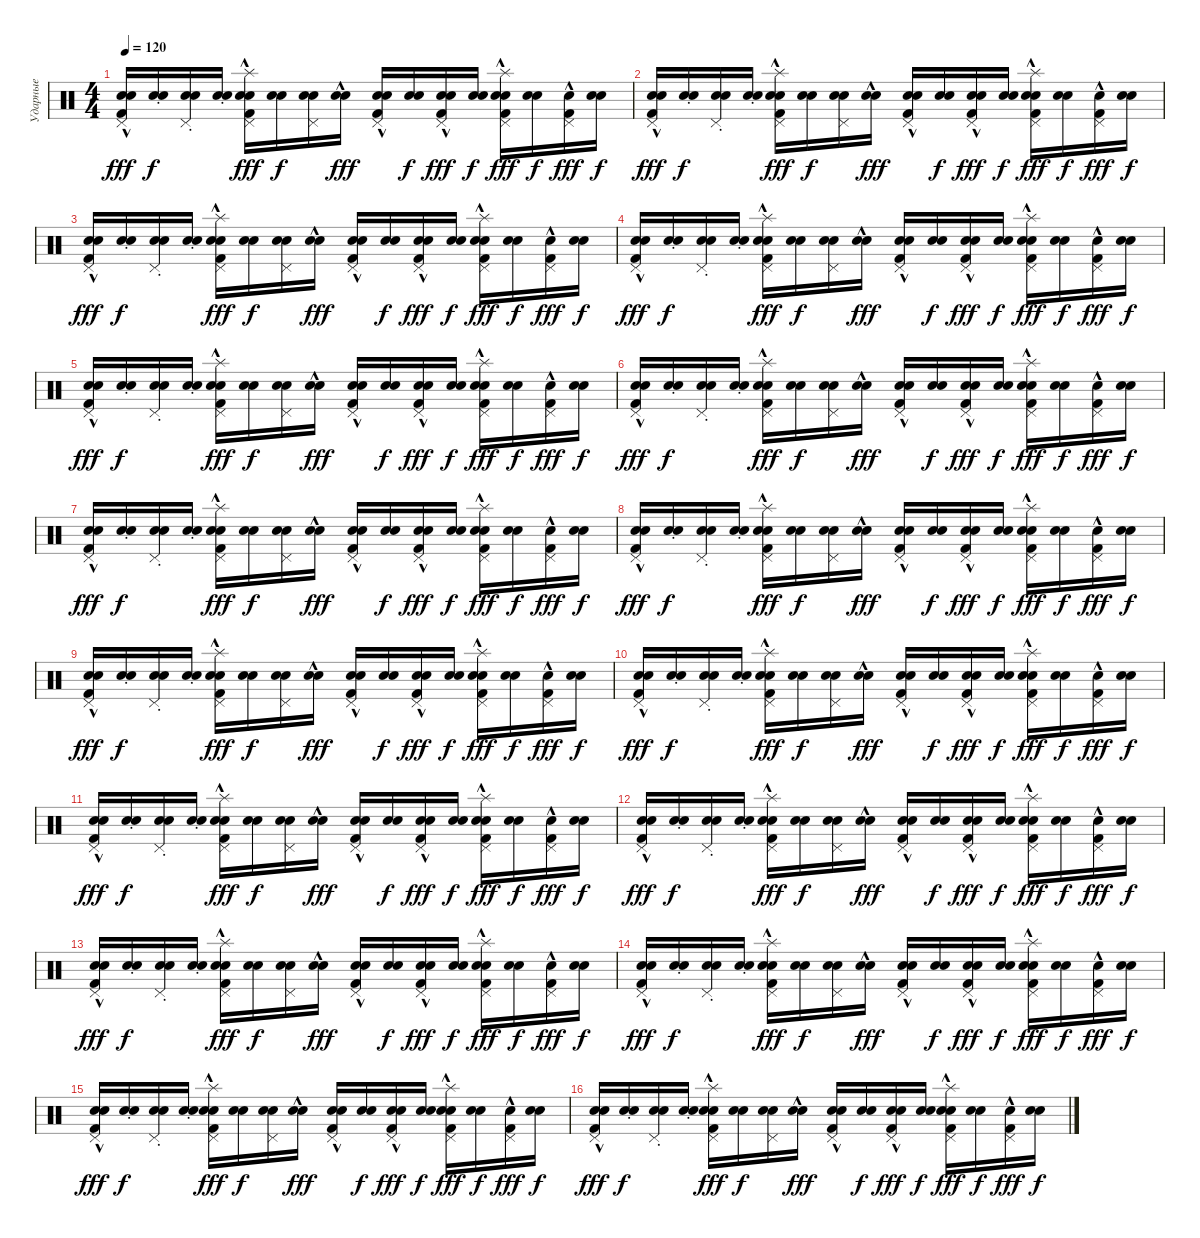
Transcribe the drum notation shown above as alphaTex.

\track ("Ударные" "Ударные") {instrument percussion}
\staff {score}
\articulation defaults
\ts (4 4)
\tempo 120
\clef neutral
\ks c
("Electric Snare (hit)" "Pedal Hi-Hat (hit)"{hac} "Snare (hit) 2"{hac} "Kick (hit) 2"{hac}).16{dy fff} ("Electric Snare (hit)"{st} "Snare (hit)").16{dy f} ("Electric Snare (hit)"{st} "Pedal Hi-Hat (hit)" "Snare (hit)").16 ("Electric Snare (hit)"{st} "Snare (hit)").16 ("Electric Snare (hit)" "Splash (hit)" "Pedal Hi-Hat (hit)" "Snare (hit) 2"{hac} "Kick (hit) 2"{hac}).16{dy fff} ("Electric Snare (hit)" "Snare (hit)").16{dy f} ("Electric Snare (hit)" "Pedal Hi-Hat (hit)" "Snare (hit)").16 ("Electric Snare (hit)" "Snare (hit)"{hac}).16{dy fff} ("Electric Snare (hit)" "Pedal Hi-Hat (hit)" "Snare (hit) 2"{hac} "Kick (hit) 2"{hac}).16 ("Electric Snare (hit)" "Snare (hit)").16{dy f} ("Electric Snare (hit)" "Electric Snare (hit)" "Pedal Hi-Hat (hit)" "Kick (hit) 2"{hac}).16{dy fff} ("Electric Snare (hit)" "Snare (hit)").16{dy f} ("Electric Snare (hit)" "Splash (hit)"{hac} "Pedal Hi-Hat (hit)" "Snare (hit) 2"{hac} "Kick (hit) 2"{hac}).16{dy fff} ("Electric Snare (hit)" "Snare (hit)").16{dy f} ("Electric Snare (hit)" "Pedal Hi-Hat (hit)"{hac} "Kick (hit) 2"{hac}).16{dy fff} ("Electric Snare (hit)" "Snare (hit)").16{dy f} |
("Electric Snare (hit)" "Pedal Hi-Hat (hit)"{hac} "Snare (hit) 2"{hac} "Kick (hit) 2"{hac}).16{dy fff} ("Electric Snare (hit)"{st} "Snare (hit)").16{dy f} ("Electric Snare (hit)"{st} "Pedal Hi-Hat (hit)" "Snare (hit)").16 ("Electric Snare (hit)"{st} "Snare (hit)").16 ("Electric Snare (hit)" "Splash (hit)" "Pedal Hi-Hat (hit)" "Snare (hit) 2"{hac} "Kick (hit) 2"{hac}).16{dy fff} ("Electric Snare (hit)" "Snare (hit)").16{dy f} ("Electric Snare (hit)" "Pedal Hi-Hat (hit)" "Snare (hit)").16 ("Electric Snare (hit)" "Snare (hit)"{hac}).16{dy fff} ("Electric Snare (hit)" "Pedal Hi-Hat (hit)"{hac} "Snare (hit) 2"{hac} "Kick (hit) 2"{hac}).16 ("Electric Snare (hit)" "Snare (hit)").16{dy f} ("Electric Snare (hit)" "Electric Snare (hit)"{hac} "Pedal Hi-Hat (hit)"{hac} "Kick (hit) 2"{hac}).16{dy fff} ("Electric Snare (hit)" "Snare (hit)").16{dy f} ("Electric Snare (hit)" "Splash (hit)" "Pedal Hi-Hat (hit)"{hac} "Snare (hit) 2"{hac} "Kick (hit) 2"{hac}).16{dy fff} ("Electric Snare (hit)" "Snare (hit)").16{dy f} ("Electric Snare (hit)" "Pedal Hi-Hat (hit)"{hac} "Kick (hit) 2"{hac}).16{dy fff} ("Electric Snare (hit)" "Snare (hit)").16{dy f} |
("Electric Snare (hit)" "Pedal Hi-Hat (hit)"{hac} "Snare (hit) 2"{hac} "Kick (hit) 2"{hac}).16{dy fff} ("Electric Snare (hit)"{st} "Snare (hit)").16{dy f} ("Electric Snare (hit)"{st} "Pedal Hi-Hat (hit)" "Snare (hit)").16 ("Electric Snare (hit)"{st} "Snare (hit)").16 ("Electric Snare (hit)" "Splash (hit)" "Pedal Hi-Hat (hit)" "Snare (hit) 2"{hac} "Kick (hit) 2"{hac}).16{dy fff} ("Electric Snare (hit)" "Snare (hit)").16{dy f} ("Electric Snare (hit)" "Pedal Hi-Hat (hit)" "Snare (hit)").16 ("Electric Snare (hit)" "Snare (hit)"{hac}).16{dy fff} ("Electric Snare (hit)" "Pedal Hi-Hat (hit)" "Snare (hit) 2"{hac} "Kick (hit) 2"{hac}).16 ("Electric Snare (hit)" "Snare (hit)").16{dy f} ("Electric Snare (hit)" "Electric Snare (hit)" "Pedal Hi-Hat (hit)" "Kick (hit) 2"{hac}).16{dy fff} ("Electric Snare (hit)" "Snare (hit)").16{dy f} ("Electric Snare (hit)" "Splash (hit)"{hac} "Pedal Hi-Hat (hit)" "Snare (hit) 2"{hac} "Kick (hit) 2"{hac}).16{dy fff} ("Electric Snare (hit)" "Snare (hit)").16{dy f} ("Electric Snare (hit)" "Pedal Hi-Hat (hit)"{hac} "Kick (hit) 2"{hac}).16{dy fff} ("Electric Snare (hit)" "Snare (hit)").16{dy f} |
("Electric Snare (hit)" "Pedal Hi-Hat (hit)"{hac} "Snare (hit) 2"{hac} "Kick (hit) 2"{hac}).16{dy fff} ("Electric Snare (hit)"{st} "Snare (hit)").16{dy f} ("Electric Snare (hit)"{st} "Pedal Hi-Hat (hit)" "Snare (hit)").16 ("Electric Snare (hit)"{st} "Snare (hit)").16 ("Electric Snare (hit)" "Splash (hit)" "Pedal Hi-Hat (hit)" "Snare (hit) 2"{hac} "Kick (hit) 2"{hac}).16{dy fff} ("Electric Snare (hit)" "Snare (hit)").16{dy f} ("Electric Snare (hit)" "Pedal Hi-Hat (hit)" "Snare (hit)").16 ("Electric Snare (hit)" "Snare (hit)"{hac}).16{dy fff} ("Electric Snare (hit)" "Pedal Hi-Hat (hit)"{hac} "Snare (hit) 2"{hac} "Kick (hit) 2"{hac}).16 ("Electric Snare (hit)" "Snare (hit)").16{dy f} ("Electric Snare (hit)" "Electric Snare (hit)"{hac} "Pedal Hi-Hat (hit)"{hac} "Kick (hit) 2"{hac}).16{dy fff} ("Electric Snare (hit)" "Snare (hit)").16{dy f} ("Electric Snare (hit)" "Splash (hit)" "Pedal Hi-Hat (hit)"{hac} "Snare (hit) 2"{hac} "Kick (hit) 2"{hac}).16{dy fff} ("Electric Snare (hit)" "Snare (hit)").16{dy f} ("Electric Snare (hit)" "Pedal Hi-Hat (hit)"{hac} "Kick (hit) 2"{hac}).16{dy fff} ("Electric Snare (hit)" "Snare (hit)").16{dy f} |
("Electric Snare (hit)" "Pedal Hi-Hat (hit)"{hac} "Snare (hit) 2"{hac} "Kick (hit) 2"{hac}).16{dy fff} ("Electric Snare (hit)"{st} "Snare (hit)").16{dy f} ("Electric Snare (hit)"{st} "Pedal Hi-Hat (hit)" "Snare (hit)").16 ("Electric Snare (hit)"{st} "Snare (hit)").16 ("Electric Snare (hit)" "Splash (hit)" "Pedal Hi-Hat (hit)" "Snare (hit) 2"{hac} "Kick (hit) 2"{hac}).16{dy fff} ("Electric Snare (hit)" "Snare (hit)").16{dy f} ("Electric Snare (hit)" "Pedal Hi-Hat (hit)" "Snare (hit)").16 ("Electric Snare (hit)" "Snare (hit)"{hac}).16{dy fff} ("Electric Snare (hit)" "Pedal Hi-Hat (hit)" "Snare (hit) 2"{hac} "Kick (hit) 2"{hac}).16 ("Electric Snare (hit)" "Snare (hit)").16{dy f} ("Electric Snare (hit)" "Electric Snare (hit)" "Pedal Hi-Hat (hit)" "Kick (hit) 2"{hac}).16{dy fff} ("Electric Snare (hit)" "Snare (hit)").16{dy f} ("Electric Snare (hit)" "Splash (hit)"{hac} "Pedal Hi-Hat (hit)" "Snare (hit) 2"{hac} "Kick (hit) 2"{hac}).16{dy fff} ("Electric Snare (hit)" "Snare (hit)").16{dy f} ("Electric Snare (hit)" "Pedal Hi-Hat (hit)"{hac} "Kick (hit) 2"{hac}).16{dy fff} ("Electric Snare (hit)" "Snare (hit)").16{dy f} |
("Electric Snare (hit)" "Pedal Hi-Hat (hit)"{hac} "Snare (hit) 2"{hac} "Kick (hit) 2"{hac}).16{dy fff} ("Electric Snare (hit)"{st} "Snare (hit)").16{dy f} ("Electric Snare (hit)"{st} "Pedal Hi-Hat (hit)" "Snare (hit)").16 ("Electric Snare (hit)"{st} "Snare (hit)").16 ("Electric Snare (hit)" "Splash (hit)" "Pedal Hi-Hat (hit)" "Snare (hit) 2"{hac} "Kick (hit) 2"{hac}).16{dy fff} ("Electric Snare (hit)" "Snare (hit)").16{dy f} ("Electric Snare (hit)" "Pedal Hi-Hat (hit)" "Snare (hit)").16 ("Electric Snare (hit)" "Snare (hit)"{hac}).16{dy fff} ("Electric Snare (hit)" "Pedal Hi-Hat (hit)"{hac} "Snare (hit) 2"{hac} "Kick (hit) 2"{hac}).16 ("Electric Snare (hit)" "Snare (hit)").16{dy f} ("Electric Snare (hit)" "Electric Snare (hit)"{hac} "Pedal Hi-Hat (hit)"{hac} "Kick (hit) 2"{hac}).16{dy fff} ("Electric Snare (hit)" "Snare (hit)").16{dy f} ("Electric Snare (hit)" "Splash (hit)" "Pedal Hi-Hat (hit)"{hac} "Snare (hit) 2"{hac} "Kick (hit) 2"{hac}).16{dy fff} ("Electric Snare (hit)" "Snare (hit)").16{dy f} ("Electric Snare (hit)" "Pedal Hi-Hat (hit)"{hac} "Kick (hit) 2"{hac}).16{dy fff} ("Electric Snare (hit)" "Snare (hit)").16{dy f} |
("Electric Snare (hit)" "Pedal Hi-Hat (hit)"{hac} "Snare (hit) 2"{hac} "Kick (hit) 2"{hac}).16{dy fff} ("Electric Snare (hit)"{st} "Snare (hit)").16{dy f} ("Electric Snare (hit)"{st} "Pedal Hi-Hat (hit)" "Snare (hit)").16 ("Electric Snare (hit)"{st} "Snare (hit)").16 ("Electric Snare (hit)" "Splash (hit)" "Pedal Hi-Hat (hit)" "Snare (hit) 2"{hac} "Kick (hit) 2"{hac}).16{dy fff} ("Electric Snare (hit)" "Snare (hit)").16{dy f} ("Electric Snare (hit)" "Pedal Hi-Hat (hit)" "Snare (hit)").16 ("Electric Snare (hit)" "Snare (hit)"{hac}).16{dy fff} ("Electric Snare (hit)" "Pedal Hi-Hat (hit)" "Snare (hit) 2"{hac} "Kick (hit) 2"{hac}).16 ("Electric Snare (hit)" "Snare (hit)").16{dy f} ("Electric Snare (hit)" "Electric Snare (hit)" "Pedal Hi-Hat (hit)" "Kick (hit) 2"{hac}).16{dy fff} ("Electric Snare (hit)" "Snare (hit)").16{dy f} ("Electric Snare (hit)" "Splash (hit)"{hac} "Pedal Hi-Hat (hit)" "Snare (hit) 2"{hac} "Kick (hit) 2"{hac}).16{dy fff} ("Electric Snare (hit)" "Snare (hit)").16{dy f} ("Electric Snare (hit)" "Pedal Hi-Hat (hit)"{hac} "Kick (hit) 2"{hac}).16{dy fff} ("Electric Snare (hit)" "Snare (hit)").16{dy f} |
("Electric Snare (hit)" "Pedal Hi-Hat (hit)"{hac} "Snare (hit) 2"{hac} "Kick (hit) 2"{hac}).16{dy fff} ("Electric Snare (hit)"{st} "Snare (hit)").16{dy f} ("Electric Snare (hit)"{st} "Pedal Hi-Hat (hit)" "Snare (hit)").16 ("Electric Snare (hit)"{st} "Snare (hit)").16 ("Electric Snare (hit)" "Splash (hit)" "Pedal Hi-Hat (hit)" "Snare (hit) 2"{hac} "Kick (hit) 2"{hac}).16{dy fff} ("Electric Snare (hit)" "Snare (hit)").16{dy f} ("Electric Snare (hit)" "Pedal Hi-Hat (hit)" "Snare (hit)").16 ("Electric Snare (hit)" "Snare (hit)"{hac}).16{dy fff} ("Electric Snare (hit)" "Pedal Hi-Hat (hit)"{hac} "Snare (hit) 2"{hac} "Kick (hit) 2"{hac}).16 ("Electric Snare (hit)" "Snare (hit)").16{dy f} ("Electric Snare (hit)" "Electric Snare (hit)"{hac} "Pedal Hi-Hat (hit)"{hac} "Kick (hit) 2"{hac}).16{dy fff} ("Electric Snare (hit)" "Snare (hit)").16{dy f} ("Electric Snare (hit)" "Splash (hit)" "Pedal Hi-Hat (hit)"{hac} "Snare (hit) 2"{hac} "Kick (hit) 2"{hac}).16{dy fff} ("Electric Snare (hit)" "Snare (hit)").16{dy f} ("Electric Snare (hit)" "Pedal Hi-Hat (hit)"{hac} "Kick (hit) 2"{hac}).16{dy fff} ("Electric Snare (hit)" "Snare (hit)").16{dy f} |
("Electric Snare (hit)" "Pedal Hi-Hat (hit)"{hac} "Snare (hit) 2"{hac} "Kick (hit) 2"{hac}).16{dy fff} ("Electric Snare (hit)"{st} "Snare (hit)").16{dy f} ("Electric Snare (hit)"{st} "Pedal Hi-Hat (hit)" "Snare (hit)").16 ("Electric Snare (hit)"{st} "Snare (hit)").16 ("Electric Snare (hit)" "Splash (hit)" "Pedal Hi-Hat (hit)" "Snare (hit) 2"{hac} "Kick (hit) 2"{hac}).16{dy fff} ("Electric Snare (hit)" "Snare (hit)").16{dy f} ("Electric Snare (hit)" "Pedal Hi-Hat (hit)" "Snare (hit)").16 ("Electric Snare (hit)" "Snare (hit)"{hac}).16{dy fff} ("Electric Snare (hit)" "Pedal Hi-Hat (hit)" "Snare (hit) 2"{hac} "Kick (hit) 2"{hac}).16 ("Electric Snare (hit)" "Snare (hit)").16{dy f} ("Electric Snare (hit)" "Electric Snare (hit)" "Pedal Hi-Hat (hit)" "Kick (hit) 2"{hac}).16{dy fff} ("Electric Snare (hit)" "Snare (hit)").16{dy f} ("Electric Snare (hit)" "Splash (hit)"{hac} "Pedal Hi-Hat (hit)" "Snare (hit) 2"{hac} "Kick (hit) 2"{hac}).16{dy fff} ("Electric Snare (hit)" "Snare (hit)").16{dy f} ("Electric Snare (hit)" "Pedal Hi-Hat (hit)"{hac} "Kick (hit) 2"{hac}).16{dy fff} ("Electric Snare (hit)" "Snare (hit)").16{dy f} |
("Electric Snare (hit)" "Pedal Hi-Hat (hit)"{hac} "Snare (hit) 2"{hac} "Kick (hit) 2"{hac}).16{dy fff} ("Electric Snare (hit)"{st} "Snare (hit)").16{dy f} ("Electric Snare (hit)"{st} "Pedal Hi-Hat (hit)" "Snare (hit)").16 ("Electric Snare (hit)"{st} "Snare (hit)").16 ("Electric Snare (hit)" "Splash (hit)" "Pedal Hi-Hat (hit)" "Snare (hit) 2"{hac} "Kick (hit) 2"{hac}).16{dy fff} ("Electric Snare (hit)" "Snare (hit)").16{dy f} ("Electric Snare (hit)" "Pedal Hi-Hat (hit)" "Snare (hit)").16 ("Electric Snare (hit)" "Snare (hit)"{hac}).16{dy fff} ("Electric Snare (hit)" "Pedal Hi-Hat (hit)"{hac} "Snare (hit) 2"{hac} "Kick (hit) 2"{hac}).16 ("Electric Snare (hit)" "Snare (hit)").16{dy f} ("Electric Snare (hit)" "Electric Snare (hit)"{hac} "Pedal Hi-Hat (hit)"{hac} "Kick (hit) 2"{hac}).16{dy fff} ("Electric Snare (hit)" "Snare (hit)").16{dy f} ("Electric Snare (hit)" "Splash (hit)" "Pedal Hi-Hat (hit)"{hac} "Snare (hit) 2"{hac} "Kick (hit) 2"{hac}).16{dy fff} ("Electric Snare (hit)" "Snare (hit)").16{dy f} ("Electric Snare (hit)" "Pedal Hi-Hat (hit)"{hac} "Kick (hit) 2"{hac}).16{dy fff} ("Electric Snare (hit)" "Snare (hit)").16{dy f} |
("Electric Snare (hit)" "Pedal Hi-Hat (hit)"{hac} "Snare (hit) 2"{hac} "Kick (hit) 2"{hac}).16{dy fff} ("Electric Snare (hit)"{st} "Snare (hit)").16{dy f} ("Electric Snare (hit)"{st} "Pedal Hi-Hat (hit)" "Snare (hit)").16 ("Electric Snare (hit)"{st} "Snare (hit)").16 ("Electric Snare (hit)" "Splash (hit)" "Pedal Hi-Hat (hit)" "Snare (hit) 2"{hac} "Kick (hit) 2"{hac}).16{dy fff} ("Electric Snare (hit)" "Snare (hit)").16{dy f} ("Electric Snare (hit)" "Pedal Hi-Hat (hit)" "Snare (hit)").16 ("Electric Snare (hit)" "Snare (hit)"{hac}).16{dy fff} ("Electric Snare (hit)" "Pedal Hi-Hat (hit)" "Snare (hit) 2"{hac} "Kick (hit) 2"{hac}).16 ("Electric Snare (hit)" "Snare (hit)").16{dy f} ("Electric Snare (hit)" "Electric Snare (hit)" "Pedal Hi-Hat (hit)" "Kick (hit) 2"{hac}).16{dy fff} ("Electric Snare (hit)" "Snare (hit)").16{dy f} ("Electric Snare (hit)" "Splash (hit)"{hac} "Pedal Hi-Hat (hit)" "Snare (hit) 2"{hac} "Kick (hit) 2"{hac}).16{dy fff} ("Electric Snare (hit)" "Snare (hit)").16{dy f} ("Electric Snare (hit)" "Pedal Hi-Hat (hit)"{hac} "Kick (hit) 2"{hac}).16{dy fff} ("Electric Snare (hit)" "Snare (hit)").16{dy f} |
("Electric Snare (hit)" "Pedal Hi-Hat (hit)"{hac} "Snare (hit) 2"{hac} "Kick (hit) 2"{hac}).16{dy fff} ("Electric Snare (hit)"{st} "Snare (hit)").16{dy f} ("Electric Snare (hit)"{st} "Pedal Hi-Hat (hit)" "Snare (hit)").16 ("Electric Snare (hit)"{st} "Snare (hit)").16 ("Electric Snare (hit)" "Splash (hit)" "Pedal Hi-Hat (hit)" "Snare (hit) 2"{hac} "Kick (hit) 2"{hac}).16{dy fff} ("Electric Snare (hit)" "Snare (hit)").16{dy f} ("Electric Snare (hit)" "Pedal Hi-Hat (hit)" "Snare (hit)").16 ("Electric Snare (hit)" "Snare (hit)"{hac}).16{dy fff} ("Electric Snare (hit)" "Pedal Hi-Hat (hit)"{hac} "Snare (hit) 2"{hac} "Kick (hit) 2"{hac}).16 ("Electric Snare (hit)" "Snare (hit)").16{dy f} ("Electric Snare (hit)" "Electric Snare (hit)"{hac} "Pedal Hi-Hat (hit)"{hac} "Kick (hit) 2"{hac}).16{dy fff} ("Electric Snare (hit)" "Snare (hit)").16{dy f} ("Electric Snare (hit)" "Splash (hit)" "Pedal Hi-Hat (hit)"{hac} "Snare (hit) 2"{hac} "Kick (hit) 2"{hac}).16{dy fff} ("Electric Snare (hit)" "Snare (hit)").16{dy f} ("Electric Snare (hit)" "Pedal Hi-Hat (hit)"{hac} "Kick (hit) 2"{hac}).16{dy fff} ("Electric Snare (hit)" "Snare (hit)").16{dy f} |
("Electric Snare (hit)" "Pedal Hi-Hat (hit)"{hac} "Snare (hit) 2"{hac} "Kick (hit) 2"{hac}).16{dy fff} ("Electric Snare (hit)"{st} "Snare (hit)").16{dy f} ("Electric Snare (hit)"{st} "Pedal Hi-Hat (hit)" "Snare (hit)").16 ("Electric Snare (hit)"{st} "Snare (hit)").16 ("Electric Snare (hit)" "Splash (hit)" "Pedal Hi-Hat (hit)" "Snare (hit) 2"{hac} "Kick (hit) 2"{hac}).16{dy fff} ("Electric Snare (hit)" "Snare (hit)").16{dy f} ("Electric Snare (hit)" "Pedal Hi-Hat (hit)" "Snare (hit)").16 ("Electric Snare (hit)" "Snare (hit)"{hac}).16{dy fff} ("Electric Snare (hit)" "Pedal Hi-Hat (hit)" "Snare (hit) 2"{hac} "Kick (hit) 2"{hac}).16 ("Electric Snare (hit)" "Snare (hit)").16{dy f} ("Electric Snare (hit)" "Electric Snare (hit)" "Pedal Hi-Hat (hit)" "Kick (hit) 2"{hac}).16{dy fff} ("Electric Snare (hit)" "Snare (hit)").16{dy f} ("Electric Snare (hit)" "Splash (hit)"{hac} "Pedal Hi-Hat (hit)" "Snare (hit) 2"{hac} "Kick (hit) 2"{hac}).16{dy fff} ("Electric Snare (hit)" "Snare (hit)").16{dy f} ("Electric Snare (hit)" "Pedal Hi-Hat (hit)"{hac} "Kick (hit) 2"{hac}).16{dy fff} ("Electric Snare (hit)" "Snare (hit)").16{dy f} |
("Electric Snare (hit)" "Pedal Hi-Hat (hit)"{hac} "Snare (hit) 2"{hac} "Kick (hit) 2"{hac}).16{dy fff} ("Electric Snare (hit)"{st} "Snare (hit)").16{dy f} ("Electric Snare (hit)"{st} "Pedal Hi-Hat (hit)" "Snare (hit)").16 ("Electric Snare (hit)"{st} "Snare (hit)").16 ("Electric Snare (hit)" "Splash (hit)" "Pedal Hi-Hat (hit)" "Snare (hit) 2"{hac} "Kick (hit) 2"{hac}).16{dy fff} ("Electric Snare (hit)" "Snare (hit)").16{dy f} ("Electric Snare (hit)" "Pedal Hi-Hat (hit)" "Snare (hit)").16 ("Electric Snare (hit)" "Snare (hit)"{hac}).16{dy fff} ("Electric Snare (hit)" "Pedal Hi-Hat (hit)"{hac} "Snare (hit) 2"{hac} "Kick (hit) 2"{hac}).16 ("Electric Snare (hit)" "Snare (hit)").16{dy f} ("Electric Snare (hit)" "Electric Snare (hit)"{hac} "Pedal Hi-Hat (hit)"{hac} "Kick (hit) 2"{hac}).16{dy fff} ("Electric Snare (hit)" "Snare (hit)").16{dy f} ("Electric Snare (hit)" "Splash (hit)" "Pedal Hi-Hat (hit)"{hac} "Snare (hit) 2"{hac} "Kick (hit) 2"{hac}).16{dy fff} ("Electric Snare (hit)" "Snare (hit)").16{dy f} ("Electric Snare (hit)" "Pedal Hi-Hat (hit)"{hac} "Kick (hit) 2"{hac}).16{dy fff} ("Electric Snare (hit)" "Snare (hit)").16{dy f} |
("Electric Snare (hit)" "Pedal Hi-Hat (hit)"{hac} "Snare (hit) 2"{hac} "Kick (hit) 2"{hac}).16{dy fff} ("Electric Snare (hit)"{st} "Snare (hit)").16{dy f} ("Electric Snare (hit)"{st} "Pedal Hi-Hat (hit)" "Snare (hit)").16 ("Electric Snare (hit)"{st} "Snare (hit)").16 ("Electric Snare (hit)" "Splash (hit)" "Pedal Hi-Hat (hit)" "Snare (hit) 2"{hac} "Kick (hit) 2"{hac}).16{dy fff} ("Electric Snare (hit)" "Snare (hit)").16{dy f} ("Electric Snare (hit)" "Pedal Hi-Hat (hit)" "Snare (hit)").16 ("Electric Snare (hit)" "Snare (hit)"{hac}).16{dy fff} ("Electric Snare (hit)" "Pedal Hi-Hat (hit)" "Snare (hit) 2"{hac} "Kick (hit) 2"{hac}).16 ("Electric Snare (hit)" "Snare (hit)").16{dy f} ("Electric Snare (hit)" "Electric Snare (hit)" "Pedal Hi-Hat (hit)" "Kick (hit) 2"{hac}).16{dy fff} ("Electric Snare (hit)" "Snare (hit)").16{dy f} ("Electric Snare (hit)" "Splash (hit)"{hac} "Pedal Hi-Hat (hit)" "Snare (hit) 2"{hac} "Kick (hit) 2"{hac}).16{dy fff} ("Electric Snare (hit)" "Snare (hit)").16{dy f} ("Electric Snare (hit)" "Pedal Hi-Hat (hit)"{hac} "Kick (hit) 2"{hac}).16{dy fff} ("Electric Snare (hit)" "Snare (hit)").16{dy f} |
("Electric Snare (hit)" "Pedal Hi-Hat (hit)"{hac} "Snare (hit) 2"{hac} "Kick (hit) 2"{hac}).16{dy fff} ("Electric Snare (hit)"{st} "Snare (hit)").16{dy f} ("Electric Snare (hit)"{st} "Pedal Hi-Hat (hit)" "Snare (hit)").16 ("Electric Snare (hit)"{st} "Snare (hit)").16 ("Electric Snare (hit)" "Splash (hit)" "Pedal Hi-Hat (hit)" "Snare (hit) 2"{hac} "Kick (hit) 2"{hac}).16{dy fff} ("Electric Snare (hit)" "Snare (hit)").16{dy f} ("Electric Snare (hit)" "Pedal Hi-Hat (hit)" "Snare (hit)").16 ("Electric Snare (hit)" "Snare (hit)"{hac}).16{dy fff} ("Electric Snare (hit)" "Pedal Hi-Hat (hit)"{hac} "Snare (hit) 2"{hac} "Kick (hit) 2"{hac}).16 ("Electric Snare (hit)" "Snare (hit)").16{dy f} ("Electric Snare (hit)" "Electric Snare (hit)"{hac} "Pedal Hi-Hat (hit)"{hac} "Kick (hit) 2"{hac}).16{dy fff} ("Electric Snare (hit)" "Snare (hit)").16{dy f} ("Electric Snare (hit)" "Splash (hit)" "Pedal Hi-Hat (hit)"{hac} "Snare (hit) 2"{hac} "Kick (hit) 2"{hac}).16{dy fff} ("Electric Snare (hit)" "Snare (hit)").16{dy f} ("Electric Snare (hit)" "Pedal Hi-Hat (hit)"{hac} "Kick (hit) 2"{hac}).16{dy fff} ("Electric Snare (hit)" "Snare (hit)").16{dy f}
